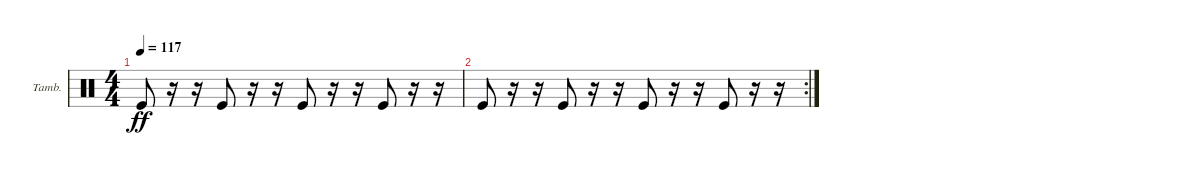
\defaultSystemsLayout 4
\bracketExtendMode groupsimilarinstruments
\firstSystemTrackNameOrientation horizontal
\otherSystemsTrackNameOrientation horizontal
\track ("Tambourine" "Tamb.") {instrument percussion}
\staff {score}
\articulation defaults
\ts (4 4)
\tempo 117
\clef neutral
\ks c "Kick (hit)".8{dy ff}
r.16 r.16 "Kick (hit)".8 r.16 r.16 "Kick (hit)".8 r.16 r.16 "Kick (hit)".8 r.16 r.16 |
\rc 2 "Kick (hit)".8
r.16 r.16 "Kick (hit)".8 r.16 r.16 "Kick (hit)".8 r.16 r.16 "Kick (hit)".8 r.16 r.16
